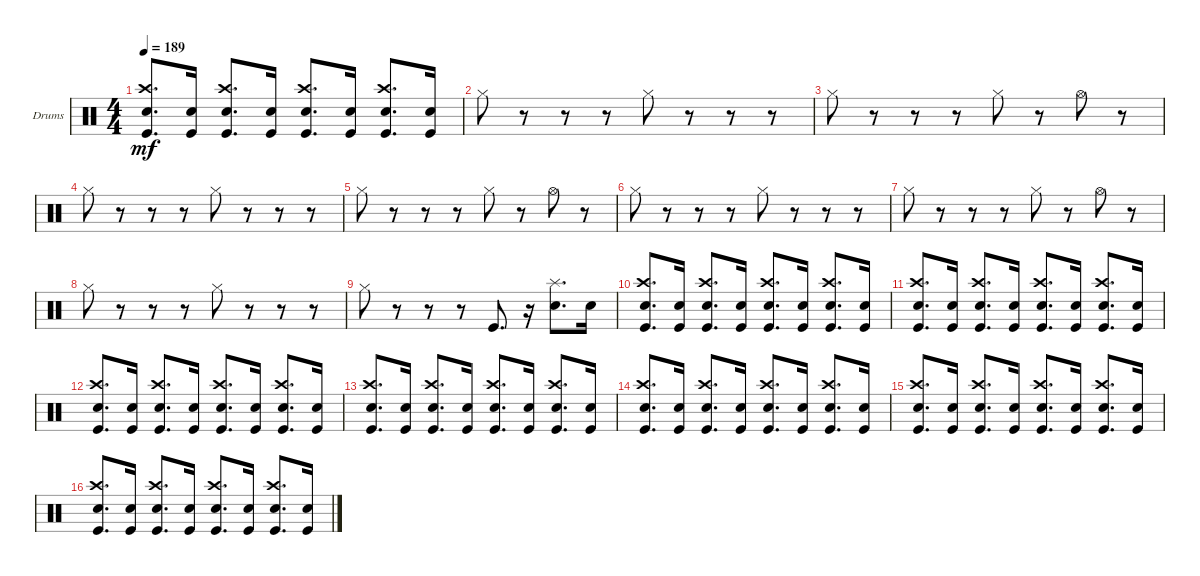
\defaultSystemsLayout 4
\bracketExtendMode groupsimilarinstruments
\firstSystemTrackNameOrientation horizontal
\otherSystemsTrackNameOrientation horizontal
\track ("Drumkit" "Drums") {instrument percussion}
\staff {score}
\articulation defaults
\ts (4 4)
\tempo 189
\clef neutral
\scale
0.333333
\ks c
("Kick (hit)" "Crash high (hit)" "Snare (hit) 2").8{d dy mf} ("Snare (hit) 2" "Kick (hit)").16 ("Kick (hit)" "Crash high (hit)" "Snare (hit) 2").8{d} ("Snare (hit) 2" "Kick (hit)").16 ("Kick (hit)" "Crash high (hit)" "Snare (hit) 2").8{d} ("Snare (hit) 2" "Kick (hit)").16 ("Kick (hit)" "Crash high (hit)" "Snare (hit) 2").8{d} ("Snare (hit) 2" "Kick (hit)").16 |
\scale
0.333333 "Hi-Hat (closed)".8 r.8 r.8 r.8 "Hi-Hat (closed)".8 r.8 r.8 r.8 |
\scale
0.333333 "Hi-Hat (closed)".8 r.8 r.8 r.8 "Hi-Hat (closed)".8 r.8 "Hi-Hat (open)".8 r.8 |
\scale
0.333333 "Hi-Hat (closed)".8 r.8 r.8 r.8 "Hi-Hat (closed)".8 r.8 r.8 r.8 |
\scale
0.333333 "Hi-Hat (closed)".8 r.8 r.8 r.8 "Hi-Hat (closed)".8 r.8 "Hi-Hat (open)".8 r.8 |
\scale
0.333333 "Hi-Hat (closed)".8 r.8 r.8 r.8 "Hi-Hat (closed)".8 r.8 r.8 r.8 |
\scale
0.333333 "Hi-Hat (closed)".8 r.8 r.8 r.8 "Hi-Hat (closed)".8 r.8 "Hi-Hat (open)".8 r.8 |
\scale
0.333333 "Hi-Hat (closed)".8 r.8 r.8 r.8 "Hi-Hat (closed)".8 r.8 r.8 r.8 |
"Hi-Hat (closed)".8 r.8 r.8 r.8 "Kick (hit)".8{d} r.16 ("Snare (hit) 2" "Splash (hit)").8{d} "Snare (hit) 2".16 |
\scale
0.333333 ("Kick (hit)" "Crash high (hit)" "Snare (hit) 2").8{d} ("Snare (hit) 2" "Kick (hit)").16 ("Kick (hit)" "Crash high (hit)" "Snare (hit) 2").8{d} ("Snare (hit) 2" "Kick (hit)").16 ("Kick (hit)" "Crash high (hit)" "Snare (hit) 2").8{d} ("Snare (hit) 2" "Kick (hit)").16 ("Kick (hit)" "Crash high (hit)" "Snare (hit) 2").8{d} ("Snare (hit) 2" "Kick (hit)").16 |
\scale
0.333333 ("Kick (hit)" "Crash high (hit)" "Snare (hit) 2").8{d} ("Snare (hit) 2" "Kick (hit)").16 ("Kick (hit)" "Crash high (hit)" "Snare (hit) 2").8{d} ("Snare (hit) 2" "Kick (hit)").16 ("Kick (hit)" "Crash high (hit)" "Snare (hit) 2").8{d} ("Snare (hit) 2" "Kick (hit)").16 ("Kick (hit)" "Crash high (hit)" "Snare (hit) 2").8{d} ("Snare (hit) 2" "Kick (hit)").16 |
\scale
0.333333 ("Kick (hit)" "Crash high (hit)" "Snare (hit) 2").8{d} ("Snare (hit) 2" "Kick (hit)").16 ("Kick (hit)" "Crash high (hit)" "Snare (hit) 2").8{d} ("Snare (hit) 2" "Kick (hit)").16 ("Kick (hit)" "Crash high (hit)" "Snare (hit) 2").8{d} ("Snare (hit) 2" "Kick (hit)").16 ("Kick (hit)" "Crash high (hit)" "Snare (hit) 2").8{d} ("Snare (hit) 2" "Kick (hit)").16 |
\scale
0.333333 ("Kick (hit)" "Crash high (hit)" "Snare (hit) 2").8{d} ("Snare (hit) 2" "Kick (hit)").16 ("Kick (hit)" "Crash high (hit)" "Snare (hit) 2").8{d} ("Snare (hit) 2" "Kick (hit)").16 ("Kick (hit)" "Crash high (hit)" "Snare (hit) 2").8{d} ("Snare (hit) 2" "Kick (hit)").16 ("Kick (hit)" "Crash high (hit)" "Snare (hit) 2").8{d} ("Snare (hit) 2" "Kick (hit)").16 |
\scale
0.333333 ("Kick (hit)" "Crash high (hit)" "Snare (hit) 2").8{d} ("Snare (hit) 2" "Kick (hit)").16 ("Kick (hit)" "Crash high (hit)" "Snare (hit) 2").8{d} ("Snare (hit) 2" "Kick (hit)").16 ("Kick (hit)" "Crash high (hit)" "Snare (hit) 2").8{d} ("Snare (hit) 2" "Kick (hit)").16 ("Kick (hit)" "Crash high (hit)" "Snare (hit) 2").8{d} ("Snare (hit) 2" "Kick (hit)").16 |
\scale
0.333333 ("Kick (hit)" "Crash high (hit)" "Snare (hit) 2").8{d} ("Snare (hit) 2" "Kick (hit)").16 ("Kick (hit)" "Crash high (hit)" "Snare (hit) 2").8{d} ("Snare (hit) 2" "Kick (hit)").16 ("Kick (hit)" "Crash high (hit)" "Snare (hit) 2").8{d} ("Snare (hit) 2" "Kick (hit)").16 ("Kick (hit)" "Crash high (hit)" "Snare (hit) 2").8{d} ("Snare (hit) 2" "Kick (hit)").16 |
\scale
0.333333 ("Kick (hit)" "Crash high (hit)" "Snare (hit) 2").8{d} ("Snare (hit) 2" "Kick (hit)").16 ("Kick (hit)" "Crash high (hit)" "Snare (hit) 2").8{d} ("Snare (hit) 2" "Kick (hit)").16 ("Kick (hit)" "Crash high (hit)" "Snare (hit) 2").8{d} ("Snare (hit) 2" "Kick (hit)").16 ("Kick (hit)" "Crash high (hit)" "Snare (hit) 2").8{d} ("Snare (hit) 2" "Kick (hit)").16
